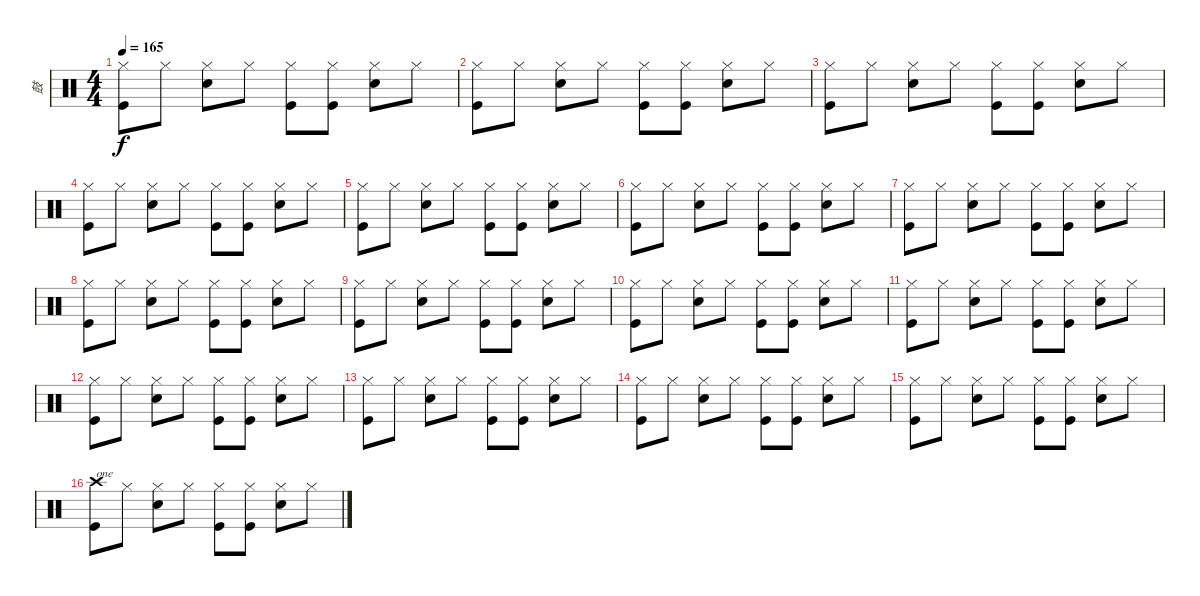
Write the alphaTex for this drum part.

\track ("鼓" "鼓") {instrument percussion}
\staff {score}
\articulation defaults
\ts (4 4)
\tempo 165
\clef neutral
\ks c
("Hi-Hat (closed)" "Kick (hit)").8{dy f} "Hi-Hat (closed)".8 ("Hi-Hat (closed)" "Snare (hit) 2").8 "Hi-Hat (closed)".8 ("Hi-Hat (closed)" "Kick (hit)").8 ("Hi-Hat (closed)" "Kick (hit)").8 ("Hi-Hat (closed)" "Snare (hit) 2").8 "Hi-Hat (closed)".8 |
("Hi-Hat (closed)" "Kick (hit)").8 "Hi-Hat (closed)".8 ("Hi-Hat (closed)" "Snare (hit) 2").8 "Hi-Hat (closed)".8 ("Hi-Hat (closed)" "Kick (hit)").8 ("Hi-Hat (closed)" "Kick (hit)").8 ("Hi-Hat (closed)" "Snare (hit) 2").8 "Hi-Hat (closed)".8 |
("Hi-Hat (closed)" "Kick (hit)").8 "Hi-Hat (closed)".8 ("Hi-Hat (closed)" "Snare (hit) 2").8 "Hi-Hat (closed)".8 ("Hi-Hat (closed)" "Kick (hit)").8 ("Hi-Hat (closed)" "Kick (hit)").8 ("Hi-Hat (closed)" "Snare (hit) 2").8 "Hi-Hat (closed)".8 |
("Hi-Hat (closed)" "Kick (hit)").8 "Hi-Hat (closed)".8 ("Hi-Hat (closed)" "Snare (hit) 2").8 "Hi-Hat (closed)".8 ("Hi-Hat (closed)" "Kick (hit)").8 ("Hi-Hat (closed)" "Kick (hit)").8 ("Hi-Hat (closed)" "Snare (hit) 2").8 "Hi-Hat (closed)".8 |
("Hi-Hat (closed)" "Kick (hit)").8 "Hi-Hat (closed)".8 ("Hi-Hat (closed)" "Snare (hit) 2").8 "Hi-Hat (closed)".8 ("Hi-Hat (closed)" "Kick (hit)").8 ("Hi-Hat (closed)" "Kick (hit)").8 ("Hi-Hat (closed)" "Snare (hit) 2").8 "Hi-Hat (closed)".8 |
("Hi-Hat (closed)" "Kick (hit)").8 "Hi-Hat (closed)".8 ("Hi-Hat (closed)" "Snare (hit) 2").8 "Hi-Hat (closed)".8 ("Hi-Hat (closed)" "Kick (hit)").8 ("Hi-Hat (closed)" "Kick (hit)").8 ("Hi-Hat (closed)" "Snare (hit) 2").8 "Hi-Hat (closed)".8 |
("Hi-Hat (closed)" "Kick (hit)").8 "Hi-Hat (closed)".8 ("Hi-Hat (closed)" "Snare (hit) 2").8 "Hi-Hat (closed)".8 ("Hi-Hat (closed)" "Kick (hit)").8 ("Hi-Hat (closed)" "Kick (hit)").8 ("Hi-Hat (closed)" "Snare (hit) 2").8 "Hi-Hat (closed)".8 |
("Hi-Hat (closed)" "Kick (hit)").8 "Hi-Hat (closed)".8 ("Hi-Hat (closed)" "Snare (hit) 2").8 "Hi-Hat (closed)".8 ("Hi-Hat (closed)" "Kick (hit)").8 ("Hi-Hat (closed)" "Kick (hit)").8 ("Hi-Hat (closed)" "Snare (hit) 2").8 "Hi-Hat (closed)".8 |
("Hi-Hat (closed)" "Kick (hit)").8 "Hi-Hat (closed)".8 ("Hi-Hat (closed)" "Snare (hit) 2").8 "Hi-Hat (closed)".8 ("Hi-Hat (closed)" "Kick (hit)").8 ("Hi-Hat (closed)" "Kick (hit)").8 ("Hi-Hat (closed)" "Snare (hit) 2").8 "Hi-Hat (closed)".8 |
("Hi-Hat (closed)" "Kick (hit)").8 "Hi-Hat (closed)".8 ("Hi-Hat (closed)" "Snare (hit) 2").8 "Hi-Hat (closed)".8 ("Hi-Hat (closed)" "Kick (hit)").8 ("Hi-Hat (closed)" "Kick (hit)").8 ("Hi-Hat (closed)" "Snare (hit) 2").8 "Hi-Hat (closed)".8 |
("Hi-Hat (closed)" "Kick (hit)").8 "Hi-Hat (closed)".8 ("Hi-Hat (closed)" "Snare (hit) 2").8 "Hi-Hat (closed)".8 ("Hi-Hat (closed)" "Kick (hit)").8 ("Hi-Hat (closed)" "Kick (hit)").8 ("Hi-Hat (closed)" "Snare (hit) 2").8 "Hi-Hat (closed)".8 |
("Hi-Hat (closed)" "Kick (hit)").8 "Hi-Hat (closed)".8 ("Hi-Hat (closed)" "Snare (hit) 2").8 "Hi-Hat (closed)".8 ("Hi-Hat (closed)" "Kick (hit)").8 ("Hi-Hat (closed)" "Kick (hit)").8 ("Hi-Hat (closed)" "Snare (hit) 2").8 "Hi-Hat (closed)".8 |
("Hi-Hat (closed)" "Kick (hit)").8 "Hi-Hat (closed)".8 ("Hi-Hat (closed)" "Snare (hit) 2").8 "Hi-Hat (closed)".8 ("Hi-Hat (closed)" "Kick (hit)").8 ("Hi-Hat (closed)" "Kick (hit)").8 ("Hi-Hat (closed)" "Snare (hit) 2").8 "Hi-Hat (closed)".8 |
("Hi-Hat (closed)" "Kick (hit)").8 "Hi-Hat (closed)".8 ("Hi-Hat (closed)" "Snare (hit) 2").8 "Hi-Hat (closed)".8 ("Hi-Hat (closed)" "Kick (hit)").8 ("Hi-Hat (closed)" "Kick (hit)").8 ("Hi-Hat (closed)" "Snare (hit) 2").8 "Hi-Hat (closed)".8 |
("Hi-Hat (closed)" "Kick (hit)").8 "Hi-Hat (closed)".8 ("Hi-Hat (closed)" "Snare (hit) 2").8 "Hi-Hat (closed)".8 ("Hi-Hat (closed)" "Kick (hit)").8 ("Hi-Hat (closed)" "Kick (hit)").8 ("Hi-Hat (closed)" "Snare (hit) 2").8 "Hi-Hat (closed)".8 |
("Crash high (hit)" "Kick (hit)").8{txt "one"} "Hi-Hat (closed)".8 ("Hi-Hat (closed)" "Snare (hit) 2").8 "Hi-Hat (closed)".8 ("Hi-Hat (closed)" "Kick (hit)").8 ("Hi-Hat (closed)" "Kick (hit)").8 ("Hi-Hat (closed)" "Snare (hit) 2").8 "Hi-Hat (closed)".8
